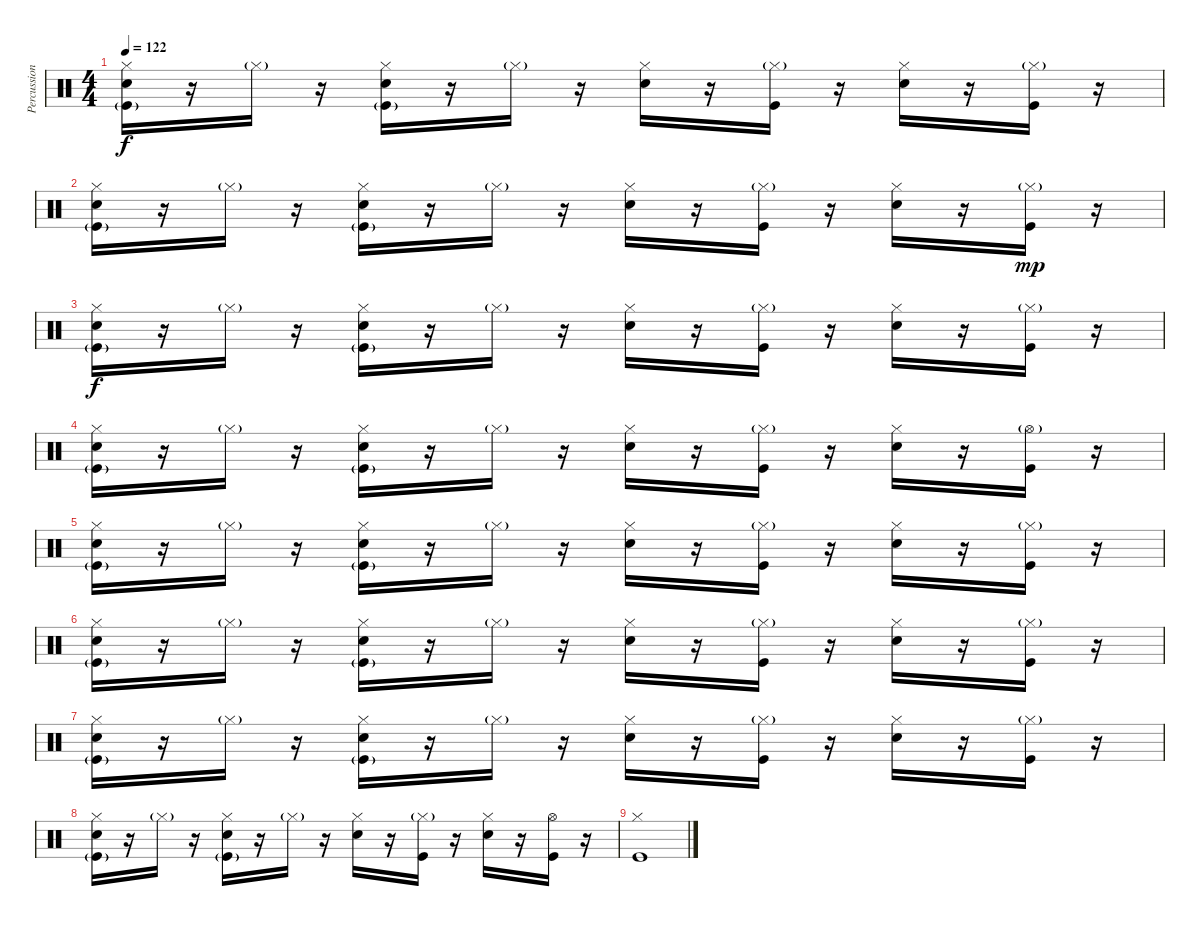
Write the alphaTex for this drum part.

\track ("Percussion" "Percussion") {instrument percussion bank 177}
\staff {score}
\articulation defaults
\ts (4 4)
\tempo 122
\clef neutral
\ks c
("Hi-Hat (closed)" "Snare (hit) 2" "Kick (hit)"{g}).16{dy f} r.16 "Hi-Hat (closed)"{g}.16 r.16 ("Hi-Hat (closed)" "Snare (hit) 2" "Kick (hit)"{g}).16 r.16 "Hi-Hat (closed)"{g}.16 r.16 ("Hi-Hat (closed)" "Snare (hit) 2").16 r.16 ("Hi-Hat (closed)"{g} "Kick (hit)").16 r.16 ("Hi-Hat (closed)" "Snare (hit) 2").16 r.16 ("Hi-Hat (closed)"{g} "Kick (hit)").16 r.16 |
("Hi-Hat (closed)" "Snare (hit) 2" "Kick (hit)"{g}).16 r.16 "Hi-Hat (closed)"{g}.16 r.16 ("Hi-Hat (closed)" "Snare (hit) 2" "Kick (hit)"{g}).16 r.16 "Hi-Hat (closed)"{g}.16 r.16 ("Hi-Hat (closed)" "Snare (hit) 2").16 r.16 ("Hi-Hat (closed)"{g} "Kick (hit)").16 r.16 ("Hi-Hat (closed)" "Snare (hit) 2").16 r.16 ("Hi-Hat (closed)"{g} "Kick (hit)").16{dy mp} r.16 |
("Hi-Hat (closed)" "Snare (hit) 2" "Kick (hit)"{g}).16{dy f} r.16 "Hi-Hat (closed)"{g}.16 r.16 ("Hi-Hat (closed)" "Snare (hit) 2" "Kick (hit)"{g}).16 r.16 "Hi-Hat (closed)"{g}.16 r.16 ("Hi-Hat (closed)" "Snare (hit) 2").16 r.16 ("Hi-Hat (closed)"{g} "Kick (hit)").16 r.16 ("Hi-Hat (closed)" "Snare (hit) 2").16 r.16 ("Hi-Hat (closed)"{g} "Kick (hit)").16 r.16 |
("Hi-Hat (closed)" "Snare (hit) 2" "Kick (hit)"{g}).16 r.16 "Hi-Hat (closed)"{g}.16 r.16 ("Hi-Hat (closed)" "Snare (hit) 2" "Kick (hit)"{g}).16 r.16 "Hi-Hat (closed)"{g}.16 r.16 ("Hi-Hat (closed)" "Snare (hit) 2").16 r.16 ("Hi-Hat (closed)"{g} "Kick (hit)").16 r.16 ("Hi-Hat (closed)" "Snare (hit) 2").16 r.16 ("Hi-Hat (open)"{g} "Kick (hit)").16 r.16 |
("Hi-Hat (closed)" "Snare (hit) 2" "Kick (hit)"{g}).16 r.16 "Hi-Hat (closed)"{g}.16 r.16 ("Hi-Hat (closed)" "Snare (hit) 2" "Kick (hit)"{g}).16 r.16 "Hi-Hat (closed)"{g}.16 r.16 ("Hi-Hat (closed)" "Snare (hit) 2").16 r.16 ("Hi-Hat (closed)"{g} "Kick (hit)").16 r.16 ("Hi-Hat (closed)" "Snare (hit) 2").16 r.16 ("Hi-Hat (closed)"{g} "Kick (hit)").16 r.16 |
("Hi-Hat (closed)" "Snare (hit) 2" "Kick (hit)"{g}).16 r.16 "Hi-Hat (closed)"{g}.16 r.16 ("Hi-Hat (closed)" "Snare (hit) 2" "Kick (hit)"{g}).16 r.16 "Hi-Hat (closed)"{g}.16 r.16 ("Hi-Hat (closed)" "Snare (hit) 2").16 r.16 ("Hi-Hat (closed)"{g} "Kick (hit)").16 r.16 ("Hi-Hat (closed)" "Snare (hit) 2").16 r.16 ("Hi-Hat (closed)"{g} "Kick (hit)").16 r.16 |
("Hi-Hat (closed)" "Snare (hit) 2" "Kick (hit)"{g}).16 r.16 "Hi-Hat (closed)"{g}.16 r.16 ("Hi-Hat (closed)" "Snare (hit) 2" "Kick (hit)"{g}).16 r.16 "Hi-Hat (closed)"{g}.16 r.16 ("Hi-Hat (closed)" "Snare (hit) 2").16 r.16 ("Hi-Hat (closed)"{g} "Kick (hit)").16 r.16 ("Hi-Hat (closed)" "Snare (hit) 2").16 r.16 ("Hi-Hat (closed)"{g} "Kick (hit)").16 r.16 |
("Hi-Hat (closed)" "Snare (hit) 2" "Kick (hit)"{g}).16 r.16 "Hi-Hat (closed)"{g}.16 r.16 ("Hi-Hat (closed)" "Snare (hit) 2" "Kick (hit)"{g}).16 r.16 "Hi-Hat (closed)"{g}.16 r.16 ("Hi-Hat (closed)" "Snare (hit) 2").16 r.16 ("Hi-Hat (closed)"{g} "Kick (hit)").16 r.16 ("Hi-Hat (closed)" "Snare (hit) 2").16 r.16 ("Hi-Hat (open)" "Kick (hit)").16 r.16 |
("Hi-Hat (closed)" "Kick (hit)").1
